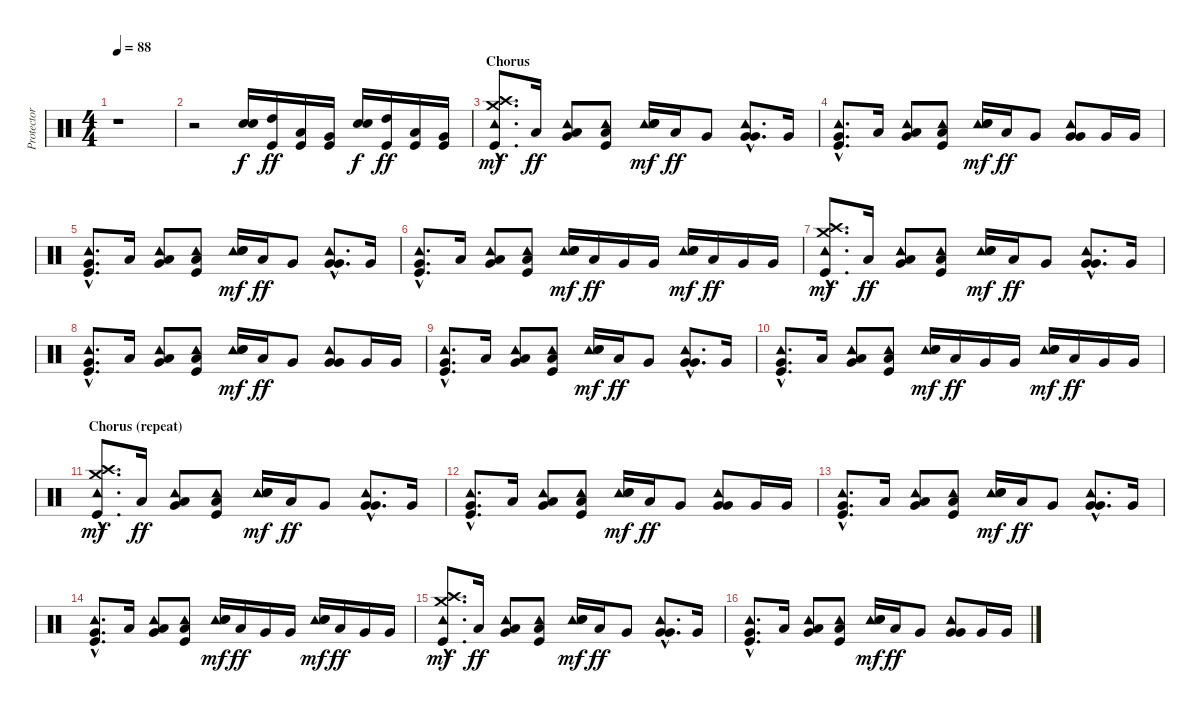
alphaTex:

\track ("Protector (Drums)" "Protector ") {instrument percussion}
\staff {score}
\articulation defaults
\ts (4 4)
\tempo 88
\clef neutral
\ks c
r.1{dy f} |
r.2 ("Electric Snare (hit)" "Snare (hit) 2").16 ("High Tom (hit)" "Kick (hit)").16{dy ff} ("Low Tom (hit)" "Kick (hit)").16 ("Very Low Tom (hit)" "Kick (hit)").16 ("Electric Snare (hit)" "Snare (hit) 2").16{dy f} ("High Tom (hit)" "Kick (hit)").16{dy ff} ("Low Tom (hit)" "Kick (hit)").16 ("Very Low Tom (hit)" "Kick (hit)").16 |
\section ("" "Chorus")
("Crash high (hit)"{hac} "Crash medium (hit)"{hac} "Tambourine (hit)"{hac} "Kick (hit)"{hac}).8{d dy mf} "Low Tom (hit)".16{dy ff} ("Tambourine (hit)" "Low Tom (hit)" "Very Low Tom (hit)").8{bu 120} ("Tambourine (hit)" "Low Floor Tom (hit)" "Kick (hit)").8 ("Tambourine (hit)" "Snare (hit) 2" "Electric Snare (hit)").16{dy mf} "Low Tom (hit)".16{dy ff} "Very Low Tom (hit)".8 ("Tambourine (hit)"{hac} "Very Low Tom (hit)"{hac} "Very Low Tom (hit)"{hac}).8{d bu 120} "Very Low Tom (hit)".16 |
("Tambourine (hit)"{hac} "Very Low Tom (hit)"{hac} "Kick (hit)"{hac}).8{d} "Low Tom (hit)".16 ("Tambourine (hit)" "Low Tom (hit)" "Very Low Tom (hit)").8{bu 120} ("Tambourine (hit)" "Low Floor Tom (hit)" "Kick (hit)").8 ("Tambourine (hit)" "Snare (hit) 2" "Electric Snare (hit)").16{dy mf} "Low Tom (hit)".16{dy ff} "Very Low Tom (hit)".8 ("Tambourine (hit)" "Very Low Tom (hit)" "Very Low Tom (hit)").8{bu 120} "Very Low Tom (hit)".16 "Very Low Tom (hit)".16 |
("Tambourine (hit)"{hac} "Very Low Tom (hit)"{hac} "Kick (hit)"{hac}).8{d} "Low Tom (hit)".16 ("Tambourine (hit)" "Low Tom (hit)" "Very Low Tom (hit)").8{bu 120} ("Tambourine (hit)" "Low Floor Tom (hit)" "Kick (hit)").8 ("Tambourine (hit)" "Snare (hit) 2" "Electric Snare (hit)").16{dy mf} "Low Tom (hit)".16{dy ff} "Very Low Tom (hit)".8 ("Tambourine (hit)"{hac} "Very Low Tom (hit)"{hac} "Very Low Tom (hit)"{hac}).8{d bu 120} "Very Low Tom (hit)".16 |
("Tambourine (hit)"{hac} "Very Low Tom (hit)"{hac} "Kick (hit)"{hac}).8{d} "Low Tom (hit)".16 ("Tambourine (hit)" "Low Tom (hit)" "Very Low Tom (hit)").8{bu 120} ("Tambourine (hit)" "Low Floor Tom (hit)" "Kick (hit)").8 ("Tambourine (hit)" "Electric Snare (hit)" "Snare (hit) 2").16{dy mf} "Low Tom (hit)".16{dy ff} "Very Low Tom (hit)".16 "Very Low Tom (hit)".16 ("Tambourine (hit)" "Electric Snare (hit)" "Snare (hit) 2").16{dy mf} "Low Tom (hit)".16{dy ff} "Very Low Tom (hit)".16 "Very Low Tom (hit)".16 |
("Crash high (hit)"{hac} "Crash medium (hit)"{hac} "Tambourine (hit)"{hac} "Kick (hit)"{hac}).8{d dy mf} "Low Tom (hit)".16{dy ff} ("Tambourine (hit)" "Low Tom (hit)" "Very Low Tom (hit)").8{bu 120} ("Tambourine (hit)" "Low Floor Tom (hit)" "Kick (hit)").8 ("Tambourine (hit)" "Snare (hit) 2" "Electric Snare (hit)").16{dy mf} "Low Tom (hit)".16{dy ff} "Very Low Tom (hit)".8 ("Tambourine (hit)"{hac} "Very Low Tom (hit)"{hac} "Very Low Tom (hit)"{hac}).8{d bu 120} "Very Low Tom (hit)".16 |
("Tambourine (hit)"{hac} "Very Low Tom (hit)"{hac} "Kick (hit)"{hac}).8{d} "Low Tom (hit)".16 ("Tambourine (hit)" "Low Tom (hit)" "Very Low Tom (hit)").8{bu 120} ("Tambourine (hit)" "Low Floor Tom (hit)" "Kick (hit)").8 ("Tambourine (hit)" "Snare (hit) 2" "Electric Snare (hit)").16{dy mf} "Low Tom (hit)".16{dy ff} "Very Low Tom (hit)".8 ("Tambourine (hit)" "Very Low Tom (hit)" "Very Low Tom (hit)").8{bu 120} "Very Low Tom (hit)".16 "Very Low Tom (hit)".16 |
("Tambourine (hit)"{hac} "Very Low Tom (hit)"{hac} "Kick (hit)"{hac}).8{d} "Low Tom (hit)".16 ("Tambourine (hit)" "Low Tom (hit)" "Very Low Tom (hit)").8{bu 120} ("Tambourine (hit)" "Low Floor Tom (hit)" "Kick (hit)").8 ("Tambourine (hit)" "Snare (hit) 2" "Electric Snare (hit)").16{dy mf} "Low Tom (hit)".16{dy ff} "Very Low Tom (hit)".8 ("Tambourine (hit)"{hac} "Very Low Tom (hit)"{hac} "Very Low Tom (hit)"{hac}).8{d bu 120} "Very Low Tom (hit)".16 |
("Tambourine (hit)"{hac} "Very Low Tom (hit)"{hac} "Kick (hit)"{hac}).8{d} "Low Tom (hit)".16 ("Tambourine (hit)" "Low Tom (hit)" "Very Low Tom (hit)").8{bu 120} ("Tambourine (hit)" "Low Floor Tom (hit)" "Kick (hit)").8 ("Tambourine (hit)" "Electric Snare (hit)" "Snare (hit) 2").16{dy mf} "Low Tom (hit)".16{dy ff} "Very Low Tom (hit)".16 "Very Low Tom (hit)".16 ("Tambourine (hit)" "Electric Snare (hit)" "Snare (hit) 2").16{dy mf} "Low Tom (hit)".16{dy ff} "Very Low Tom (hit)".16 "Very Low Tom (hit)".16 |
\section ("" "Chorus (repeat)")
("Crash high (hit)"{hac} "Crash medium (hit)"{hac} "Tambourine (hit)"{hac} "Kick (hit)"{hac}).8{d dy mf} "Low Tom (hit)".16{dy ff} ("Tambourine (hit)" "Low Tom (hit)" "Very Low Tom (hit)").8{bu 120} ("Tambourine (hit)" "Low Floor Tom (hit)" "Kick (hit)").8 ("Tambourine (hit)" "Snare (hit) 2" "Electric Snare (hit)").16{dy mf} "Low Tom (hit)".16{dy ff} "Very Low Tom (hit)".8 ("Tambourine (hit)"{hac} "Very Low Tom (hit)"{hac} "Very Low Tom (hit)"{hac}).8{d bu 120} "Very Low Tom (hit)".16 |
("Tambourine (hit)"{hac} "Very Low Tom (hit)"{hac} "Kick (hit)"{hac}).8{d} "Low Tom (hit)".16 ("Tambourine (hit)" "Low Tom (hit)" "Very Low Tom (hit)").8{bu 120} ("Tambourine (hit)" "Low Floor Tom (hit)" "Kick (hit)").8 ("Tambourine (hit)" "Snare (hit) 2" "Electric Snare (hit)").16{dy mf} "Low Tom (hit)".16{dy ff} "Very Low Tom (hit)".8 ("Tambourine (hit)" "Very Low Tom (hit)" "Very Low Tom (hit)").8{bu 120} "Very Low Tom (hit)".16 "Very Low Tom (hit)".16 |
("Tambourine (hit)"{hac} "Very Low Tom (hit)"{hac} "Kick (hit)"{hac}).8{d} "Low Tom (hit)".16 ("Tambourine (hit)" "Low Tom (hit)" "Very Low Tom (hit)").8{bu 120} ("Tambourine (hit)" "Low Floor Tom (hit)" "Kick (hit)").8 ("Tambourine (hit)" "Snare (hit) 2" "Electric Snare (hit)").16{dy mf} "Low Tom (hit)".16{dy ff} "Very Low Tom (hit)".8 ("Tambourine (hit)"{hac} "Very Low Tom (hit)"{hac} "Very Low Tom (hit)"{hac}).8{d bu 120} "Very Low Tom (hit)".16 |
("Tambourine (hit)"{hac} "Very Low Tom (hit)"{hac} "Kick (hit)"{hac}).8{d} "Low Tom (hit)".16 ("Tambourine (hit)" "Low Tom (hit)" "Very Low Tom (hit)").8{bu 120} ("Tambourine (hit)" "Low Floor Tom (hit)" "Kick (hit)").8 ("Tambourine (hit)" "Electric Snare (hit)" "Snare (hit) 2").16{dy mf} "Low Tom (hit)".16{dy ff} "Very Low Tom (hit)".16 "Very Low Tom (hit)".16 ("Tambourine (hit)" "Electric Snare (hit)" "Snare (hit) 2").16{dy mf} "Low Tom (hit)".16{dy ff} "Very Low Tom (hit)".16 "Very Low Tom (hit)".16 |
("Crash high (hit)"{hac} "Crash medium (hit)"{hac} "Tambourine (hit)"{hac} "Kick (hit)"{hac}).8{d dy mf} "Low Tom (hit)".16{dy ff} ("Tambourine (hit)" "Low Tom (hit)" "Very Low Tom (hit)").8{bu 120} ("Tambourine (hit)" "Low Floor Tom (hit)" "Kick (hit)").8 ("Tambourine (hit)" "Snare (hit) 2" "Electric Snare (hit)").16{dy mf} "Low Tom (hit)".16{dy ff} "Very Low Tom (hit)".8 ("Tambourine (hit)"{hac} "Very Low Tom (hit)"{hac} "Very Low Tom (hit)"{hac}).8{d bu 120} "Very Low Tom (hit)".16 |
("Tambourine (hit)"{hac} "Very Low Tom (hit)"{hac} "Kick (hit)"{hac}).8{d} "Low Tom (hit)".16 ("Tambourine (hit)" "Low Tom (hit)" "Very Low Tom (hit)").8{bu 120} ("Tambourine (hit)" "Low Floor Tom (hit)" "Kick (hit)").8 ("Tambourine (hit)" "Snare (hit) 2" "Electric Snare (hit)").16{dy mf} "Low Tom (hit)".16{dy ff} "Very Low Tom (hit)".8 ("Tambourine (hit)" "Very Low Tom (hit)" "Very Low Tom (hit)").8{bu 120} "Very Low Tom (hit)".16 "Very Low Tom (hit)".16
